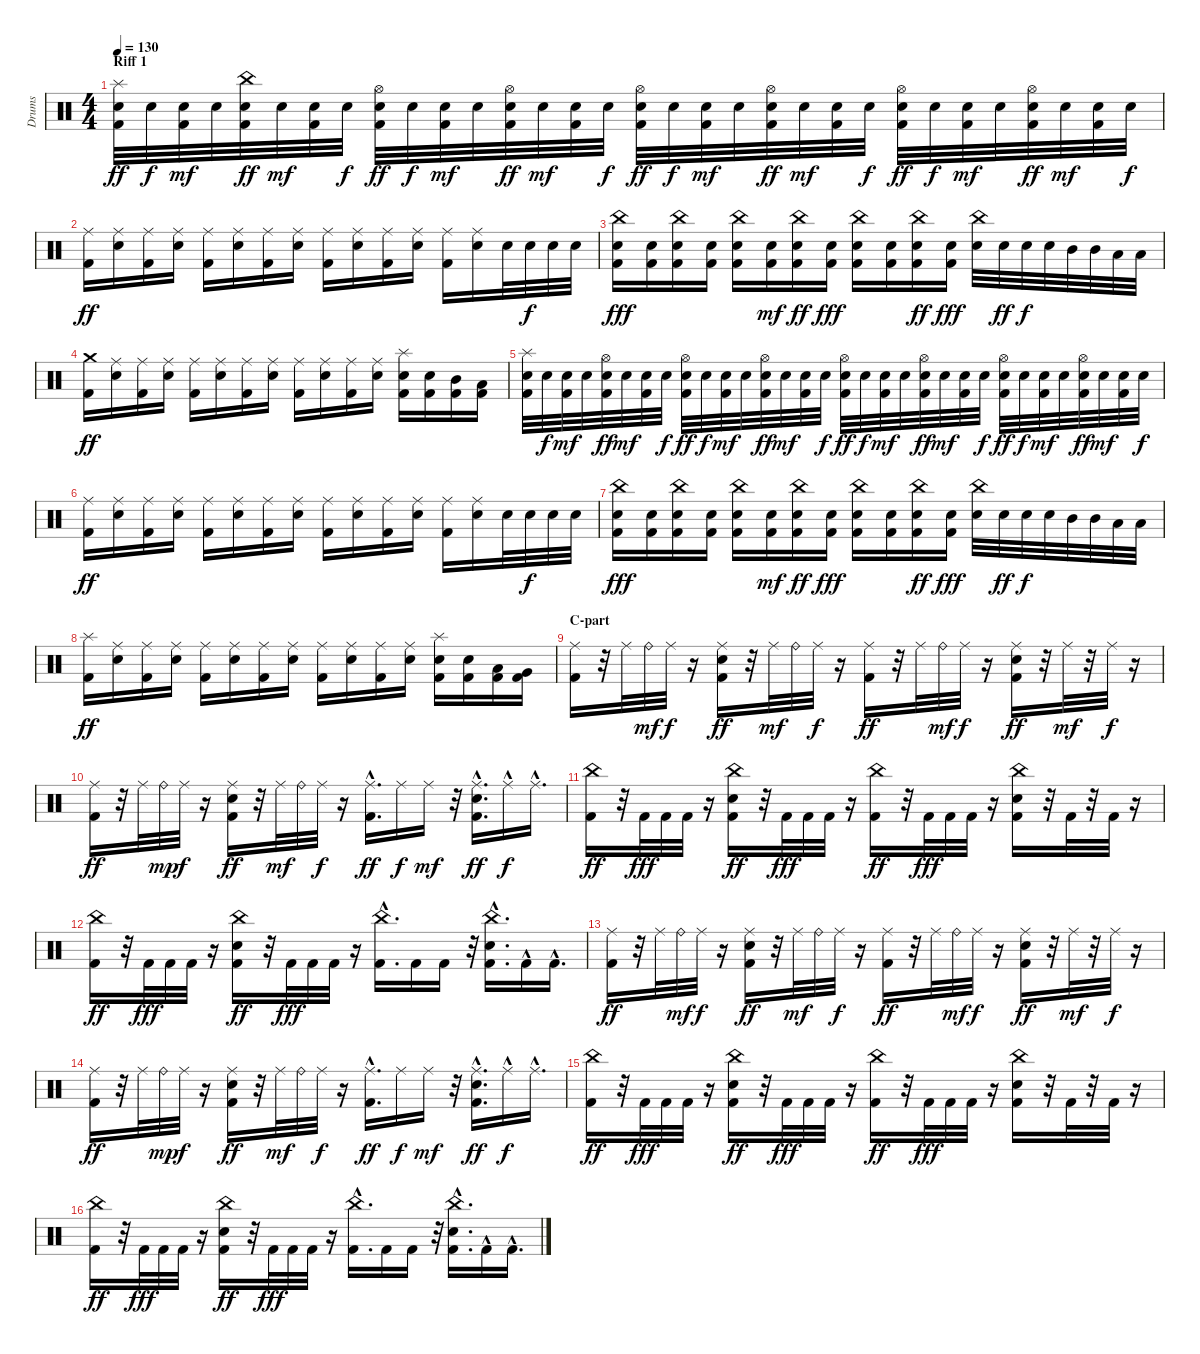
\track ("Drums" "Drums") {instrument percussion}
\staff {score}
\articulation defaults
\ts (4 4)
\section ("" "Riff 1")
\tempo 130
\clef neutral
\ks c
("Kick (hit) 2" "Snare (hit) 2" "Splash (hit)").32{dy ff} "Snare (hit) 2".32{dy f} ("Kick (hit) 2" "Snare (hit) 2").32{dy mf} "Snare (hit) 2".32 ("Kick (hit) 2" "Snare (hit) 2" "China (hit)").32{dy ff} "Snare (hit) 2".32{dy mf} ("Kick (hit) 2" "Snare (hit) 2").32 "Snare (hit) 2".32{dy f} ("Kick (hit) 2" "Snare (hit) 2" "Hi-Hat (open)").32{dy ff} "Snare (hit) 2".32{dy f} ("Kick (hit) 2" "Snare (hit) 2").32{dy mf} "Snare (hit) 2".32 ("Kick (hit) 2" "Snare (hit) 2" "Hi-Hat (open)").32{dy ff} "Snare (hit) 2".32{dy mf} ("Kick (hit) 2" "Snare (hit) 2").32 "Snare (hit) 2".32{dy f} ("Kick (hit) 2" "Snare (hit) 2" "Hi-Hat (open)").32{dy ff} "Snare (hit) 2".32{dy f} ("Kick (hit) 2" "Snare (hit) 2").32{dy mf} "Snare (hit) 2".32 ("Kick (hit) 2" "Snare (hit) 2" "Hi-Hat (open)").32{dy ff} "Snare (hit) 2".32{dy mf} ("Kick (hit) 2" "Snare (hit) 2").32 "Snare (hit) 2".32{dy f} ("Kick (hit) 2" "Snare (hit) 2" "Hi-Hat (open)").32{dy ff} "Snare (hit) 2".32{dy f} ("Kick (hit) 2" "Snare (hit) 2").32{dy mf} "Snare (hit) 2".32 ("Kick (hit) 2" "Snare (hit) 2" "Hi-Hat (open)").32{dy ff} "Snare (hit) 2".32{dy mf} ("Kick (hit) 2" "Snare (hit) 2").32 "Snare (hit) 2".32{dy f} |
("Kick (hit) 2" "Ride (middle)").16{dy ff} ("Snare (hit) 2" "Ride (middle)").16 ("Kick (hit) 2" "Ride (middle)").16 ("Snare (hit) 2" "Ride (middle)").16 ("Kick (hit) 2" "Ride (middle)").16 ("Snare (hit) 2" "Ride (middle)").16 ("Kick (hit) 2" "Ride (middle)").16 ("Snare (hit) 2" "Ride (middle)").16 ("Kick (hit) 2" "Ride (middle)").16 ("Snare (hit) 2" "Ride (middle)").16 ("Kick (hit) 2" "Ride (middle)").16 ("Snare (hit) 2" "Ride (middle)").16 ("Kick (hit) 2" "Ride (middle)").16 ("Snare (hit) 2" "Ride (middle)").16 "Snare (hit) 2".32 "Snare (hit) 2".32{dy f} "Snare (hit) 2".32 "Snare (hit) 2".32 |
("Kick (hit) 2" "Snare (hit) 2" "China (hit)").16{dy fff} ("Kick (hit) 2" "Snare (hit) 2").16 ("Kick (hit) 2" "Snare (hit) 2" "China (hit)").16 ("Kick (hit) 2" "Snare (hit) 2").16 ("Kick (hit) 2" "Snare (hit) 2" "China (hit)").16 ("Kick (hit) 2" "Snare (hit) 2").16{dy mf} ("Kick (hit) 2" "Snare (hit) 2" "China (hit)").16{dy ff} ("Kick (hit) 2" "Snare (hit) 2").16{dy fff} ("Kick (hit) 2" "Snare (hit) 2" "China (hit)").16 ("Kick (hit) 2" "Snare (hit) 2").16 ("Kick (hit) 2" "Snare (hit) 2" "China (hit)").16{dy ff} ("Kick (hit) 2" "Snare (hit) 2").16{dy fff} ("Snare (hit) 2" "China (hit)").32 "Snare (hit) 2".32{dy ff} "Snare (hit) 2".32{dy f} "Snare (hit) 2".32 "Mid Tom (hit)".32 "Mid Tom (hit)".32 "Low Tom (hit)".32 "Low Tom (hit)".32 |
("Kick (hit) 2" "Crash medium (hit)").16{dy ff} ("Snare (hit) 2" "Ride (middle)").16 ("Kick (hit) 2" "Ride (middle)").16 ("Snare (hit) 2" "Ride (middle)").16 ("Kick (hit) 2" "Ride (middle)").16 ("Snare (hit) 2" "Ride (middle)").16 ("Kick (hit) 2" "Ride (middle)").16 ("Snare (hit) 2" "Ride (middle)").16 ("Kick (hit) 2" "Ride (middle)").16 ("Snare (hit) 2" "Ride (middle)").16 ("Kick (hit) 2" "Ride (middle)").16 ("Snare (hit) 2" "Ride (middle)").16 ("Kick (hit) 2" "Snare (hit) 2" "Splash (hit)").16 ("Kick (hit) 2" "Snare (hit) 2").16 ("Kick (hit) 2" "Mid Tom (hit)").16 ("Kick (hit) 2" "Low Tom (hit)").16 |
("Kick (hit) 2" "Snare (hit) 2" "Splash (hit)").32 "Snare (hit) 2".32{dy f} ("Kick (hit) 2" "Snare (hit) 2").32{dy mf} "Snare (hit) 2".32 ("Kick (hit) 2" "Snare (hit) 2" "Hi-Hat (open)").32{dy ff} "Snare (hit) 2".32{dy mf} ("Kick (hit) 2" "Snare (hit) 2").32 "Snare (hit) 2".32{dy f} ("Kick (hit) 2" "Snare (hit) 2" "Hi-Hat (open)").32{dy ff} "Snare (hit) 2".32{dy f} ("Kick (hit) 2" "Snare (hit) 2").32{dy mf} "Snare (hit) 2".32 ("Kick (hit) 2" "Snare (hit) 2" "Hi-Hat (open)").32{dy ff} "Snare (hit) 2".32{dy mf} ("Kick (hit) 2" "Snare (hit) 2").32 "Snare (hit) 2".32{dy f} ("Kick (hit) 2" "Snare (hit) 2" "Hi-Hat (open)").32{dy ff} "Snare (hit) 2".32{dy f} ("Kick (hit) 2" "Snare (hit) 2").32{dy mf} "Snare (hit) 2".32 ("Kick (hit) 2" "Snare (hit) 2" "Hi-Hat (open)").32{dy ff} "Snare (hit) 2".32{dy mf} ("Kick (hit) 2" "Snare (hit) 2").32 "Snare (hit) 2".32{dy f} ("Kick (hit) 2" "Snare (hit) 2" "Hi-Hat (open)").32{dy ff} "Snare (hit) 2".32{dy f} ("Kick (hit) 2" "Snare (hit) 2").32{dy mf} "Snare (hit) 2".32 ("Kick (hit) 2" "Snare (hit) 2" "Hi-Hat (open)").32{dy ff} "Snare (hit) 2".32{dy mf} ("Kick (hit) 2" "Snare (hit) 2").32 "Snare (hit) 2".32{dy f} |
("Kick (hit) 2" "Ride (middle)").16{dy ff} ("Snare (hit) 2" "Ride (middle)").16 ("Kick (hit) 2" "Ride (middle)").16 ("Snare (hit) 2" "Ride (middle)").16 ("Kick (hit) 2" "Ride (middle)").16 ("Snare (hit) 2" "Ride (middle)").16 ("Kick (hit) 2" "Ride (middle)").16 ("Snare (hit) 2" "Ride (middle)").16 ("Kick (hit) 2" "Ride (middle)").16 ("Snare (hit) 2" "Ride (middle)").16 ("Kick (hit) 2" "Ride (middle)").16 ("Snare (hit) 2" "Ride (middle)").16 ("Kick (hit) 2" "Ride (middle)").16 ("Snare (hit) 2" "Ride (middle)").16 "Snare (hit) 2".32 "Snare (hit) 2".32{dy f} "Snare (hit) 2".32 "Snare (hit) 2".32 |
("Kick (hit) 2" "Snare (hit) 2" "China (hit)").16{dy fff} ("Kick (hit) 2" "Snare (hit) 2").16 ("Kick (hit) 2" "Snare (hit) 2" "China (hit)").16 ("Kick (hit) 2" "Snare (hit) 2").16 ("Kick (hit) 2" "Snare (hit) 2" "China (hit)").16 ("Kick (hit) 2" "Snare (hit) 2").16{dy mf} ("Kick (hit) 2" "Snare (hit) 2" "China (hit)").16{dy ff} ("Kick (hit) 2" "Snare (hit) 2").16{dy fff} ("Kick (hit) 2" "Snare (hit) 2" "China (hit)").16 ("Kick (hit) 2" "Snare (hit) 2").16 ("Kick (hit) 2" "Snare (hit) 2" "China (hit)").16{dy ff} ("Kick (hit) 2" "Snare (hit) 2").16{dy fff} ("Snare (hit) 2" "China (hit)").32 "Snare (hit) 2".32{dy ff} "Snare (hit) 2".32{dy f} "Snare (hit) 2".32 "Mid Tom (hit)".32 "Mid Tom (hit)".32 "Low Tom (hit)".32 "Low Tom (hit)".32 |
("Kick (hit) 2" "Splash (hit)").16{dy ff} ("Snare (hit) 2" "Ride (middle)").16 ("Kick (hit) 2" "Ride (middle)").16 ("Snare (hit) 2" "Ride (middle)").16 ("Kick (hit) 2" "Ride (middle)").16 ("Snare (hit) 2" "Ride (middle)").16 ("Kick (hit) 2" "Ride (middle)").16 ("Snare (hit) 2" "Ride (middle)").16 ("Kick (hit) 2" "Ride (middle)").16 ("Snare (hit) 2" "Ride (middle)").16 ("Kick (hit) 2" "Ride (middle)").16 ("Snare (hit) 2" "Ride (middle)").16 ("Kick (hit) 2" "Snare (hit) 2" "Splash (hit)").16 ("Kick (hit) 2" "Snare (hit) 2").16 ("Kick (hit) 2" "Low Tom (hit)").16 ("Kick (hit) 2" "Very Low Tom (hit)").16 |
\section ("" "C-part")
("Kick (hit) 2" "Ride (middle)").16 r.32 "Ride (middle)".32 "Ride (bell)".32{dy mf} "Ride (middle)".32{dy f} r.16 ("Kick (hit) 2" "Snare (hit) 2" "Ride (middle)").16{dy ff} r.32 "Ride (middle)".32{dy mf} "Ride (bell)".32 "Ride (middle)".32{dy f} r.16 ("Kick (hit) 2" "Ride (middle)").16{dy ff} r.32 "Ride (middle)".32 "Ride (bell)".32{dy mf} "Ride (middle)".32{dy f} r.16 ("Ride (middle)" "Kick (hit) 2" "Snare (hit) 2").16{dy ff} r.32 "Ride (middle)".32{dy mf} r.32 "Ride (middle)".32{dy f} r.16 |
("Kick (hit) 2" "Ride (middle)").16{dy ff} r.32 "Ride (middle)".32 "Ride (bell)".32{dy mp} "Ride (middle)".32{dy f} r.16 ("Kick (hit) 2" "Snare (hit) 2" "Ride (middle)").16{dy ff} r.32 "Ride (middle)".32{dy mf} "Ride (bell)".32 "Ride (middle)".32{dy f} r.16 ("Kick (hit) 2" "Ride (middle)"{hac}).16{d dy ff} "Ride (middle)".16{dy f} "Ride (middle)".16{dy mf} r.32 ("Kick (hit) 2" "Snare (hit) 2" "Ride (middle)"{hac}).16{d dy ff} "Ride (middle)"{hac}.16{dy f} "Ride (middle)"{hac}.16{d} |
("Kick (hit) 2" "China (hit)").16{dy ff} r.32 "Kick (hit) 2".32{dy fff} "Kick (hit) 2".32 "Kick (hit) 2".32 r.16 ("Kick (hit) 2" "Snare (hit) 2" "China (hit)").16{dy ff} r.32 "Kick (hit) 2".32{dy fff} "Kick (hit) 2".32 "Kick (hit) 2".32 r.16 ("Kick (hit) 2" "China (hit)").16{dy ff} r.32 "Kick (hit) 2".32{dy fff} "Kick (hit) 2".32 "Kick (hit) 2".32 r.16 ("Kick (hit) 2" "Snare (hit) 2" "China (hit)").16 r.32 "Kick (hit) 2".32 r.32 "Kick (hit) 2".32 r.16 |
("Kick (hit) 2" "China (hit)").16{dy ff} r.32 "Kick (hit) 2".32{dy fff} "Kick (hit) 2".32 "Kick (hit) 2".32 r.16 ("Kick (hit) 2" "Snare (hit) 2" "China (hit)").16{dy ff} r.32 "Kick (hit) 2".32{dy fff} "Kick (hit) 2".32 "Kick (hit) 2".32 r.16 ("China (hit)" "Kick (hit) 2"{hac}).16{d} "Kick (hit) 2".16 "Kick (hit) 2".16 r.32 ("Snare (hit) 2" "China (hit)" "Kick (hit) 2"{hac}).16{d} "Kick (hit) 2"{hac}.16 "Kick (hit) 2"{hac}.16{d} |
("Kick (hit) 2" "Ride (middle)").16{dy ff} r.32 "Ride (middle)".32 "Ride (bell)".32{dy mf} "Ride (middle)".32{dy f} r.16 ("Kick (hit) 2" "Snare (hit) 2" "Ride (middle)").16{dy ff} r.32 "Ride (middle)".32{dy mf} "Ride (bell)".32 "Ride (middle)".32{dy f} r.16 ("Kick (hit) 2" "Ride (middle)").16{dy ff} r.32 "Ride (middle)".32 "Ride (bell)".32{dy mf} "Ride (middle)".32{dy f} r.16 ("Ride (middle)" "Kick (hit) 2" "Snare (hit) 2").16{dy ff} r.32 "Ride (middle)".32{dy mf} r.32 "Ride (middle)".32{dy f} r.16 |
("Kick (hit) 2" "Ride (middle)").16{dy ff} r.32 "Ride (middle)".32 "Ride (bell)".32{dy mp} "Ride (middle)".32{dy f} r.16 ("Kick (hit) 2" "Snare (hit) 2" "Ride (middle)").16{dy ff} r.32 "Ride (middle)".32{dy mf} "Ride (bell)".32 "Ride (middle)".32{dy f} r.16 ("Kick (hit) 2" "Ride (middle)"{hac}).16{d dy ff} "Ride (middle)".16{dy f} "Ride (middle)".16{dy mf} r.32 ("Kick (hit) 2" "Snare (hit) 2" "Ride (middle)"{hac}).16{d dy ff} "Ride (middle)"{hac}.16{dy f} "Ride (middle)"{hac}.16{d} |
("Kick (hit) 2" "China (hit)").16{dy ff} r.32 "Kick (hit) 2".32{dy fff} "Kick (hit) 2".32 "Kick (hit) 2".32 r.16 ("Kick (hit) 2" "Snare (hit) 2" "China (hit)").16{dy ff} r.32 "Kick (hit) 2".32{dy fff} "Kick (hit) 2".32 "Kick (hit) 2".32 r.16 ("Kick (hit) 2" "China (hit)").16{dy ff} r.32 "Kick (hit) 2".32{dy fff} "Kick (hit) 2".32 "Kick (hit) 2".32 r.16 ("Kick (hit) 2" "Snare (hit) 2" "China (hit)").16 r.32 "Kick (hit) 2".32 r.32 "Kick (hit) 2".32 r.16 |
("Kick (hit) 2" "China (hit)").16{dy ff} r.32 "Kick (hit) 2".32{dy fff} "Kick (hit) 2".32 "Kick (hit) 2".32 r.16 ("Kick (hit) 2" "Snare (hit) 2" "China (hit)").16{dy ff} r.32 "Kick (hit) 2".32{dy fff} "Kick (hit) 2".32 "Kick (hit) 2".32 r.16 ("China (hit)" "Kick (hit) 2"{hac}).16{d} "Kick (hit) 2".16 "Kick (hit) 2".16 r.32 ("Snare (hit) 2" "China (hit)" "Kick (hit) 2"{hac}).16{d} "Kick (hit) 2"{hac}.16 "Kick (hit) 2"{hac}.16{d}
